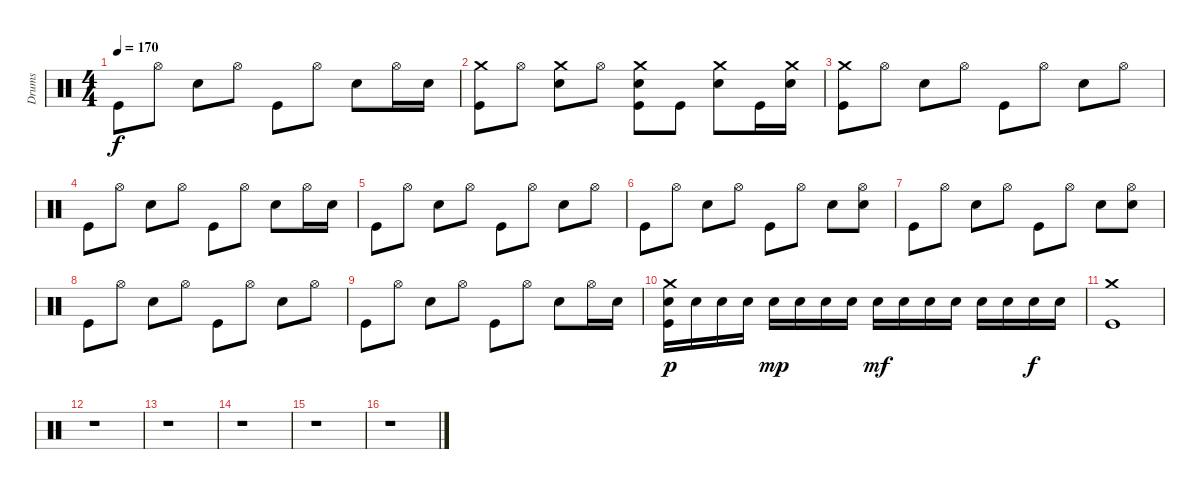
\track ("Drums" "Drums") {instrument percussion}
\staff {score}
\articulation defaults
\ts (4 4)
\tempo 170
\clef neutral
\ks c "Kick (hit)".8{dy f} "Hi-Hat (open)".8 "Electric Snare (hit)".8 "Hi-Hat (open)".8 "Kick (hit)".8 "Hi-Hat (open)".8 "Electric Snare (hit)".8 "Hi-Hat (open)".16 "Electric Snare (hit)".16
|
("Crash medium (hit)" "Kick (hit)").8 "Hi-Hat (open)".8 ("Crash medium (hit)" "Electric Snare (hit)").8 "Hi-Hat (open)".8 ("Crash medium (hit)" "Electric Snare (hit)" "Kick (hit)").8 "Kick (hit)".8 ("Crash medium (hit)" "Electric Snare (hit)").8 "Kick (hit)".16 ("Crash medium (hit)" "Electric Snare (hit)").16 |
("Crash medium (hit)" "Kick (hit)").8 "Hi-Hat (open)".8 "Electric Snare (hit)".8 "Hi-Hat (open)".8 "Kick (hit)".8 "Hi-Hat (open)".8 "Electric Snare (hit)".8 "Hi-Hat (open)".8 |
"Kick (hit)".8 "Hi-Hat (open)".8 "Electric Snare (hit)".8 "Hi-Hat (open)".8 "Kick (hit)".8 "Hi-Hat (open)".8 "Electric Snare (hit)".8 "Hi-Hat (open)".16 "Electric Snare (hit)".16 |
"Kick (hit)".8 "Hi-Hat (open)".8 "Electric Snare (hit)".8 "Hi-Hat (open)".8 "Kick (hit)".8 "Hi-Hat (open)".8 "Electric Snare (hit)".8 "Hi-Hat (open)".8 |
"Kick (hit)".8 "Hi-Hat (open)".8 "Electric Snare (hit)".8 "Hi-Hat (open)".8 "Kick (hit)".8 "Hi-Hat (open)".8 "Electric Snare (hit)".8 ("Electric Snare (hit)" "Hi-Hat (open)").8 |
"Kick (hit)".8 "Hi-Hat (open)".8 "Electric Snare (hit)".8 "Hi-Hat (open)".8 "Kick (hit)".8 "Hi-Hat (open)".8 "Electric Snare (hit)".8 ("Electric Snare (hit)" "Hi-Hat (open)").8 |
"Kick (hit)".8 "Hi-Hat (open)".8 "Electric Snare (hit)".8 "Hi-Hat (open)".8 "Kick (hit)".8 "Hi-Hat (open)".8 "Electric Snare (hit)".8 "Hi-Hat (open)".8 |
"Kick (hit)".8 "Hi-Hat (open)".8 "Electric Snare (hit)".8 "Hi-Hat (open)".8 "Kick (hit)".8 "Hi-Hat (open)".8 "Electric Snare (hit)".8 "Hi-Hat (open)".16 "Electric Snare (hit)".16 |
("Crash medium (hit)" "Electric Snare (hit)" "Kick (hit)").16{dy p} "Electric Snare (hit)".16 "Electric Snare (hit)".16 "Electric Snare (hit)".16 "Electric Snare (hit)".16{dy mp} "Electric Snare (hit)".16 "Electric Snare (hit)".16 "Electric Snare (hit)".16 "Electric Snare (hit)".16{dy mf} "Electric Snare (hit)".16 "Electric Snare (hit)".16 "Electric Snare (hit)".16 "Electric Snare (hit)".16 "Electric Snare (hit)".16 "Electric Snare (hit)".16{dy f} "Electric Snare (hit)".16 |
("Crash medium (hit)" "Kick (hit)").1 |
r.1 |
r.1 |
r.1 |
r.1 |
r.1
